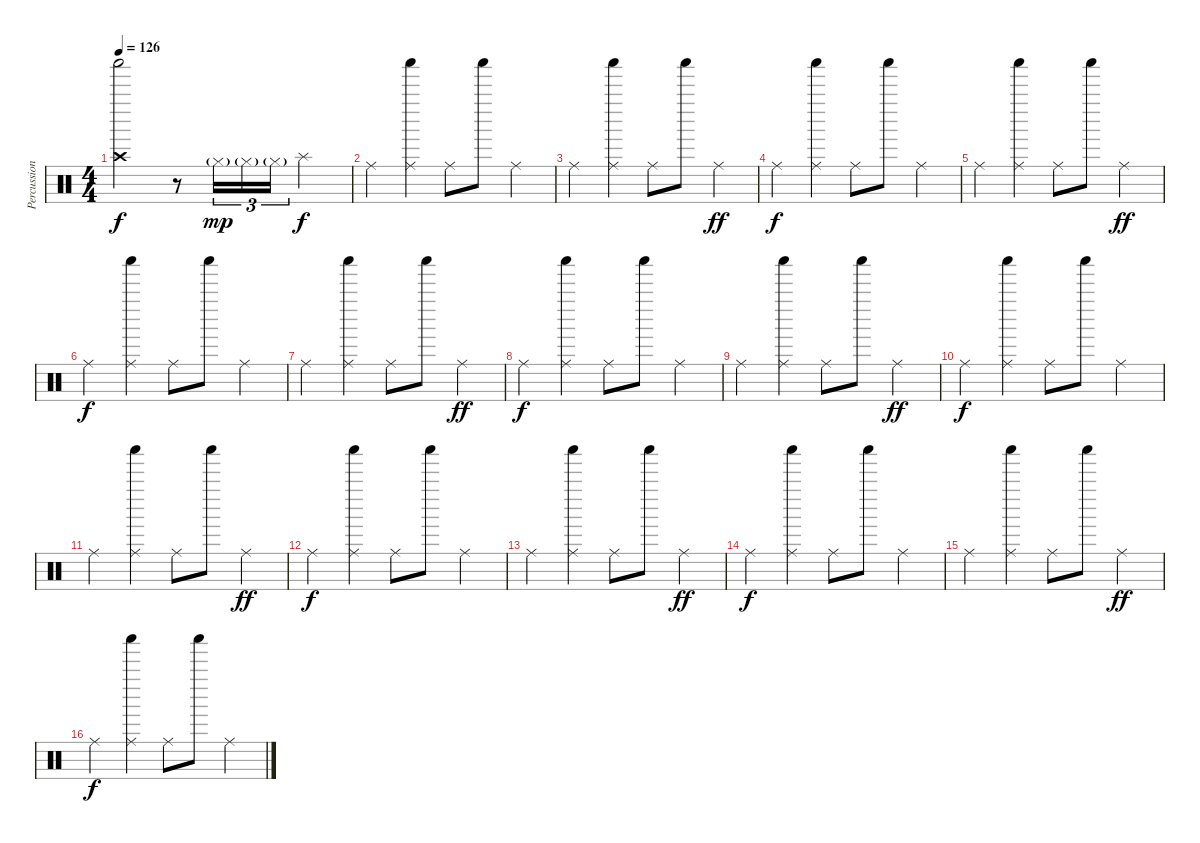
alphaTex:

\track ("Percussion" "Percussion") {instrument percussion}
\staff {score}
\articulation defaults
\ts (4 4)
\tempo 126
\clef neutral
\ks c
("Crash high (hit)" "Shaker (hit)").2{dy f} r.8 "Hi-Hat (closed)"{g}.16{tu (3 2) dy mp} "Hi-Hat (closed)"{g}.16{tu (3 2)} "Hi-Hat (closed)"{g}.16{tu (3 2)} "Splash (hit)".4{dy f} |
"Ride (middle)".4 ("Ride (middle)" "Shaker (hit)").4 "Ride (middle)".8 "Shaker (hit)".8 "Ride (middle)".4 |
"Ride (middle)".4 ("Ride (middle)" "Shaker (hit)").4 "Ride (middle)".8 "Shaker (hit)".8 "Ride (middle)".4{dy ff} |
"Ride (middle)".4{dy f} ("Ride (middle)" "Shaker (hit)").4 "Ride (middle)".8 "Shaker (hit)".8 "Ride (middle)".4 |
"Ride (middle)".4 ("Ride (middle)" "Shaker (hit)").4 "Ride (middle)".8 "Shaker (hit)".8 "Ride (middle)".4{dy ff} |
"Ride (middle)".4{dy f} ("Ride (middle)" "Shaker (hit)").4 "Ride (middle)".8 "Shaker (hit)".8 "Ride (middle)".4 |
"Ride (middle)".4 ("Ride (middle)" "Shaker (hit)").4 "Ride (middle)".8 "Shaker (hit)".8 "Ride (middle)".4{dy ff} |
"Ride (middle)".4{dy f} ("Ride (middle)" "Shaker (hit)").4 "Ride (middle)".8 "Shaker (hit)".8 "Ride (middle)".4 |
"Ride (middle)".4 ("Ride (middle)" "Shaker (hit)").4 "Ride (middle)".8 "Shaker (hit)".8 "Ride (middle)".4{dy ff} |
"Ride (middle)".4{dy f} ("Ride (middle)" "Shaker (hit)").4 "Ride (middle)".8 "Shaker (hit)".8 "Ride (middle)".4 |
"Ride (middle)".4 ("Ride (middle)" "Shaker (hit)").4 "Ride (middle)".8 "Shaker (hit)".8 "Ride (middle)".4{dy ff} |
"Ride (middle)".4{dy f} ("Ride (middle)" "Shaker (hit)").4 "Ride (middle)".8 "Shaker (hit)".8 "Ride (middle)".4 |
"Ride (middle)".4 ("Ride (middle)" "Shaker (hit)").4 "Ride (middle)".8 "Shaker (hit)".8 "Ride (middle)".4{dy ff} |
"Ride (middle)".4{dy f} ("Ride (middle)" "Shaker (hit)").4 "Ride (middle)".8 "Shaker (hit)".8 "Ride (middle)".4 |
"Ride (middle)".4 ("Ride (middle)" "Shaker (hit)").4 "Ride (middle)".8 "Shaker (hit)".8 "Ride (middle)".4{dy ff} |
"Ride (middle)".4{dy f} ("Ride (middle)" "Shaker (hit)").4 "Ride (middle)".8 "Shaker (hit)".8 "Ride (middle)".4
